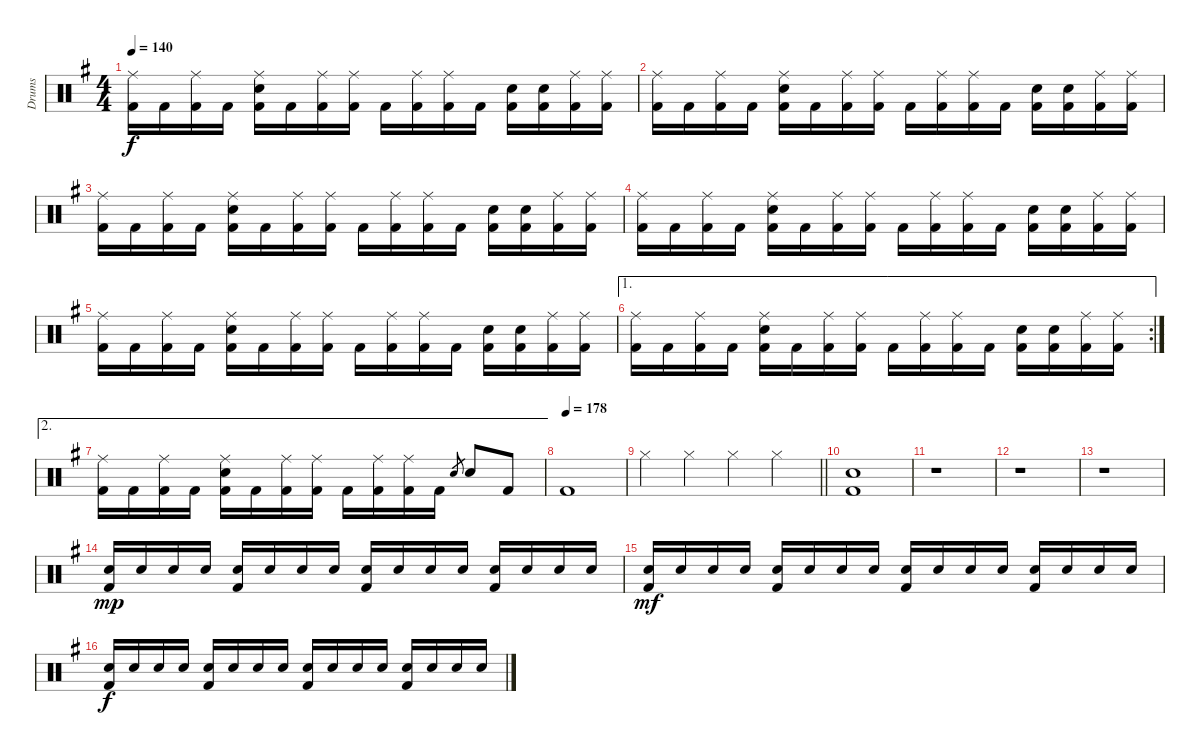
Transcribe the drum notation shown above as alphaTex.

\track ("Drums" "Drums") {instrument percussion}
\staff {score}
\articulation defaults
\ts (4 4)
\tempo 140
\clef neutral
\ks g
("Kick (hit) 2" "Ride (middle)").16{dy f} "Kick (hit) 2".16 ("Kick (hit) 2" "Ride (middle)").16 "Kick (hit) 2".16 ("Kick (hit) 2" "Ride (middle)" "Snare (hit) 2").16 "Kick (hit) 2".16 ("Kick (hit) 2" "Ride (middle)").16 ("Kick (hit) 2" "Ride (middle)").16 "Kick (hit) 2".16 ("Kick (hit) 2" "Ride (middle)").16 ("Kick (hit) 2" "Ride (middle)").16 "Kick (hit) 2".16 ("Kick (hit) 2" "Snare (hit) 2").16 ("Kick (hit) 2" "Snare (hit) 2").16 ("Kick (hit) 2" "Ride (middle)").16 ("Kick (hit) 2" "Ride (middle)").16 |
("Kick (hit) 2" "Ride (middle)").16 "Kick (hit) 2".16 ("Kick (hit) 2" "Ride (middle)").16 "Kick (hit) 2".16 ("Kick (hit) 2" "Ride (middle)" "Snare (hit) 2").16 "Kick (hit) 2".16 ("Kick (hit) 2" "Ride (middle)").16 ("Kick (hit) 2" "Ride (middle)").16 "Kick (hit) 2".16 ("Kick (hit) 2" "Ride (middle)").16 ("Kick (hit) 2" "Ride (middle)").16 "Kick (hit) 2".16 ("Kick (hit) 2" "Snare (hit) 2").16 ("Kick (hit) 2" "Snare (hit) 2").16 ("Kick (hit) 2" "Ride (middle)").16 ("Kick (hit) 2" "Ride (middle)").16 |
("Kick (hit) 2" "Ride (middle)").16 "Kick (hit) 2".16 ("Kick (hit) 2" "Ride (middle)").16 "Kick (hit) 2".16 ("Kick (hit) 2" "Ride (middle)" "Snare (hit) 2").16 "Kick (hit) 2".16 ("Kick (hit) 2" "Ride (middle)").16 ("Kick (hit) 2" "Ride (middle)").16 "Kick (hit) 2".16 ("Kick (hit) 2" "Ride (middle)").16 ("Kick (hit) 2" "Ride (middle)").16 "Kick (hit) 2".16 ("Kick (hit) 2" "Snare (hit) 2").16 ("Kick (hit) 2" "Snare (hit) 2").16 ("Kick (hit) 2" "Ride (middle)").16 ("Kick (hit) 2" "Ride (middle)").16 |
("Kick (hit) 2" "Ride (middle)").16 "Kick (hit) 2".16 ("Kick (hit) 2" "Ride (middle)").16 "Kick (hit) 2".16 ("Kick (hit) 2" "Ride (middle)" "Snare (hit) 2").16 "Kick (hit) 2".16 ("Kick (hit) 2" "Ride (middle)").16 ("Kick (hit) 2" "Ride (middle)").16 "Kick (hit) 2".16 ("Kick (hit) 2" "Ride (middle)").16 ("Kick (hit) 2" "Ride (middle)").16 "Kick (hit) 2".16 ("Kick (hit) 2" "Snare (hit) 2").16 ("Kick (hit) 2" "Snare (hit) 2").16 ("Kick (hit) 2" "Ride (middle)").16 ("Kick (hit) 2" "Ride (middle)").16 |
("Kick (hit) 2" "Ride (middle)").16 "Kick (hit) 2".16 ("Kick (hit) 2" "Ride (middle)").16 "Kick (hit) 2".16 ("Kick (hit) 2" "Ride (middle)" "Snare (hit) 2").16 "Kick (hit) 2".16 ("Kick (hit) 2" "Ride (middle)").16 ("Kick (hit) 2" "Ride (middle)").16 "Kick (hit) 2".16 ("Kick (hit) 2" "Ride (middle)").16 ("Kick (hit) 2" "Ride (middle)").16 "Kick (hit) 2".16 ("Kick (hit) 2" "Snare (hit) 2").16 ("Kick (hit) 2" "Snare (hit) 2").16 ("Kick (hit) 2" "Ride (middle)").16 ("Kick (hit) 2" "Ride (middle)").16 |
\ae 1
\rc 2
("Kick (hit) 2" "Ride (middle)").16 "Kick (hit) 2".16 ("Kick (hit) 2" "Ride (middle)").16 "Kick (hit) 2".16 ("Kick (hit) 2" "Ride (middle)" "Snare (hit) 2").16 "Kick (hit) 2".16 ("Kick (hit) 2" "Ride (middle)").16 ("Kick (hit) 2" "Ride (middle)").16 "Kick (hit) 2".16 ("Kick (hit) 2" "Ride (middle)").16 ("Kick (hit) 2" "Ride (middle)").16 "Kick (hit) 2".16 ("Kick (hit) 2" "Snare (hit) 2").16 ("Kick (hit) 2" "Snare (hit) 2").16 ("Kick (hit) 2" "Ride (middle)").16 ("Kick (hit) 2" "Ride (middle)").16 |
\ae 2
("Kick (hit) 2" "Ride (middle)").16 "Kick (hit) 2".16 ("Kick (hit) 2" "Ride (middle)").16 "Kick (hit) 2".16 ("Kick (hit) 2" "Ride (middle)" "Snare (hit) 2").16 "Kick (hit) 2".16 ("Kick (hit) 2" "Ride (middle)").16 ("Kick (hit) 2" "Ride (middle)").16 "Kick (hit) 2".16 ("Kick (hit) 2" "Ride (middle)").16 ("Kick (hit) 2" "Ride (middle)").16 "Kick (hit) 2".16 "Snare (hit) 2".8{gr} "Snare (hit) 2".8 "Kick (hit) 2".8 |
\tempo (178)
"Kick (hit) 2".1 |
\barLineRight lightlight "Hi-Hat (closed)".4 "Hi-Hat (closed)".4 "Hi-Hat (closed)".4 "Hi-Hat (closed)".4
|
("Kick (hit) 2" "Snare (hit) 2").1 |
r.1 |
r.1 |
r.1 |
("Kick (hit) 2" "Snare (hit) 2").16{dy mp} "Snare (hit) 2".16 "Snare (hit) 2".16 "Snare (hit) 2".16 ("Kick (hit) 2" "Snare (hit) 2").16 "Snare (hit) 2".16 "Snare (hit) 2".16 "Snare (hit) 2".16 ("Kick (hit) 2" "Snare (hit) 2").16 "Snare (hit) 2".16 "Snare (hit) 2".16 "Snare (hit) 2".16 ("Kick (hit) 2" "Snare (hit) 2").16 "Snare (hit) 2".16 "Snare (hit) 2".16 "Snare (hit) 2".16 |
("Kick (hit) 2" "Snare (hit) 2").16{dy mf} "Snare (hit) 2".16 "Snare (hit) 2".16 "Snare (hit) 2".16 ("Kick (hit) 2" "Snare (hit) 2").16 "Snare (hit) 2".16 "Snare (hit) 2".16 "Snare (hit) 2".16 ("Kick (hit) 2" "Snare (hit) 2").16 "Snare (hit) 2".16 "Snare (hit) 2".16 "Snare (hit) 2".16 ("Kick (hit) 2" "Snare (hit) 2").16 "Snare (hit) 2".16 "Snare (hit) 2".16 "Snare (hit) 2".16 |
("Kick (hit) 2" "Snare (hit) 2").16{dy f} "Snare (hit) 2".16 "Snare (hit) 2".16 "Snare (hit) 2".16 ("Kick (hit) 2" "Snare (hit) 2").16 "Snare (hit) 2".16 "Snare (hit) 2".16 "Snare (hit) 2".16 ("Kick (hit) 2" "Snare (hit) 2").16 "Snare (hit) 2".16 "Snare (hit) 2".16 "Snare (hit) 2".16 ("Kick (hit) 2" "Snare (hit) 2").16 "Snare (hit) 2".16 "Snare (hit) 2".16 "Snare (hit) 2".16
